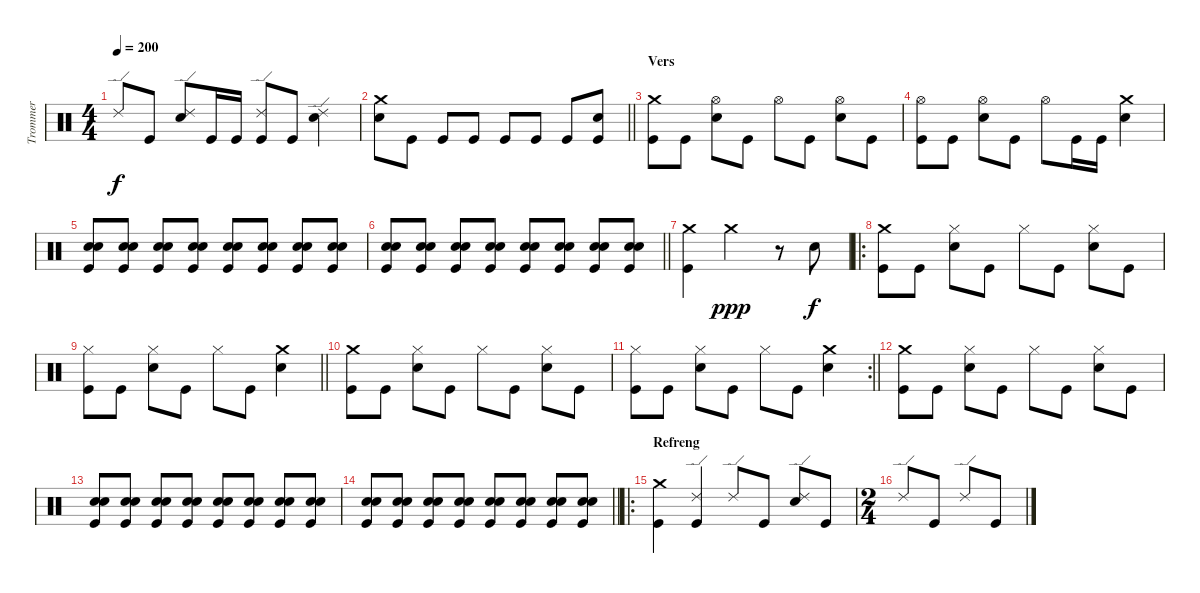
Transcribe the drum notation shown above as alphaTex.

\track ("Trommer" "Trommer") {instrument percussion}
\staff {score}
\articulation defaults
\ts (4 4)
\tempo 200
\clef neutral
\ks c "Ride (edge) 2".8{dy f} "Kick (hit)".8
("Ride (edge) 2" "Snare (hit) 2").8 "Kick (hit)".16 "Kick (hit)".16 ("Ride (edge) 2" "Kick (hit)").8 "Kick (hit)".8 ("Ride (edge) 2" "Snare (hit) 2").4 |
\barLineRight lightlight
("Crash medium (hit)" "Snare (hit) 2").8 "Kick (hit)".8 "Kick (hit)".8 "Kick (hit)".8 "Kick (hit)".8 "Kick (hit)".8 "Kick (hit)".8 ("Snare (hit) 2" "Kick (hit)").8 |
\section ("" "Vers")
("Crash medium (hit)" "Kick (hit)").8 "Kick (hit)".8 ("Hi-Hat (open)" "Snare (hit) 2").8 "Kick (hit)".8 "Hi-Hat (open)".8 "Kick (hit)".8 ("Hi-Hat (open)" "Snare (hit) 2").8 "Kick (hit)".8 |
("Hi-Hat (open)" "Kick (hit)").8 "Kick (hit)".8 ("Hi-Hat (open)" "Snare (hit) 2").8 "Kick (hit)".8 "Hi-Hat (open)".8 "Kick (hit)".16 "Kick (hit)".16 ("Crash medium (hit)" "Snare (hit) 2").4 |
("Snare (hit) 2" "Snare (hit) 2" "Kick (hit)").8 ("Snare (hit) 2" "Snare (hit) 2" "Kick (hit)").8 ("Snare (hit) 2" "Snare (hit) 2" "Kick (hit)").8 ("Snare (hit) 2" "Snare (hit) 2" "Kick (hit)").8 ("Snare (hit) 2" "Snare (hit) 2" "Kick (hit)").8 ("Snare (hit) 2" "Snare (hit) 2" "Kick (hit)").8 ("Snare (hit) 2" "Snare (hit) 2" "Kick (hit)").8 ("Snare (hit) 2" "Snare (hit) 2" "Kick (hit)").8 |
\barLineRight lightlight
("Snare (hit) 2" "Snare (hit) 2" "Kick (hit)").8 ("Snare (hit) 2" "Snare (hit) 2" "Kick (hit)").8 ("Snare (hit) 2" "Snare (hit) 2" "Kick (hit)").8 ("Snare (hit) 2" "Snare (hit) 2" "Kick (hit)").8 ("Snare (hit) 2" "Snare (hit) 2" "Kick (hit)").8 ("Snare (hit) 2" "Snare (hit) 2" "Kick (hit)").8 ("Snare (hit) 2" "Snare (hit) 2" "Kick (hit)").8 ("Snare (hit) 2" "Snare (hit) 2" "Kick (hit)").8 |
("Crash medium (hit)" "Kick (hit)").4 "Crash medium (hit)".2{dy ppp volume 0} r.8 "Snare (hit) 2".8{dy f volume 16} |
\ro
("Crash medium (hit)" "Kick (hit)").8 "Kick (hit)".8 ("Hi-Hat (closed)" "Snare (hit) 2").8 "Kick (hit)".8 "Hi-Hat (closed)".8 "Kick (hit)".8 ("Hi-Hat (closed)" "Snare (hit) 2").8 "Kick (hit)".8 |
\barLineRight lightlight
("Hi-Hat (closed)" "Kick (hit)").8 "Kick (hit)".8 ("Hi-Hat (closed)" "Snare (hit) 2").8 "Kick (hit)".8 "Hi-Hat (closed)".8 "Kick (hit)".8 ("Crash medium (hit)" "Snare (hit) 2").4 |
("Crash medium (hit)" "Kick (hit)").8 "Kick (hit)".8 ("Hi-Hat (closed)" "Snare (hit) 2").8 "Kick (hit)".8 "Hi-Hat (closed)".8 "Kick (hit)".8 ("Hi-Hat (closed)" "Snare (hit) 2").8 "Kick (hit)".8 |
\rc 2
\barLineRight lightlight
("Hi-Hat (closed)" "Kick (hit)").8 "Kick (hit)".8 ("Hi-Hat (closed)" "Snare (hit) 2").8 "Kick (hit)".8 "Hi-Hat (closed)".8 "Kick (hit)".8 ("Crash medium (hit)" "Snare (hit) 2").4 |
("Crash medium (hit)" "Kick (hit)").8 "Kick (hit)".8 ("Hi-Hat (closed)" "Snare (hit) 2").8 "Kick (hit)".8 "Hi-Hat (closed)".8 "Kick (hit)".8 ("Hi-Hat (closed)" "Snare (hit) 2").8 "Kick (hit)".8 |
("Snare (hit) 2" "Snare (hit) 2" "Kick (hit)").8 ("Snare (hit) 2" "Snare (hit) 2" "Kick (hit)").8 ("Snare (hit) 2" "Snare (hit) 2" "Kick (hit)").8 ("Snare (hit) 2" "Snare (hit) 2" "Kick (hit)").8 ("Snare (hit) 2" "Snare (hit) 2" "Kick (hit)").8 ("Snare (hit) 2" "Snare (hit) 2" "Kick (hit)").8 ("Snare (hit) 2" "Snare (hit) 2" "Kick (hit)").8 ("Snare (hit) 2" "Snare (hit) 2" "Kick (hit)").8 |
\barLineRight lightlight
("Snare (hit) 2" "Snare (hit) 2" "Kick (hit)").8 ("Snare (hit) 2" "Snare (hit) 2" "Kick (hit)").8 ("Snare (hit) 2" "Snare (hit) 2" "Kick (hit)").8 ("Snare (hit) 2" "Snare (hit) 2" "Kick (hit)").8 ("Snare (hit) 2" "Snare (hit) 2" "Kick (hit)").8 ("Snare (hit) 2" "Snare (hit) 2" "Kick (hit)").8 ("Snare (hit) 2" "Snare (hit) 2" "Kick (hit)").8 ("Snare (hit) 2" "Snare (hit) 2" "Kick (hit)").8 |
\ro
\section ("" "Refreng")
("Crash medium (hit)" "Kick (hit)").4 ("Ride (edge) 2" "Kick (hit)").4 "Ride (edge) 2".8 "Kick (hit)".8 ("Ride (edge) 2" "Snare (hit) 2").8 "Kick (hit)".8 |
\ts (2 4)
"Ride (edge) 2".8 "Kick (hit)".8 "Ride (edge) 2".8 "Kick (hit)".8
